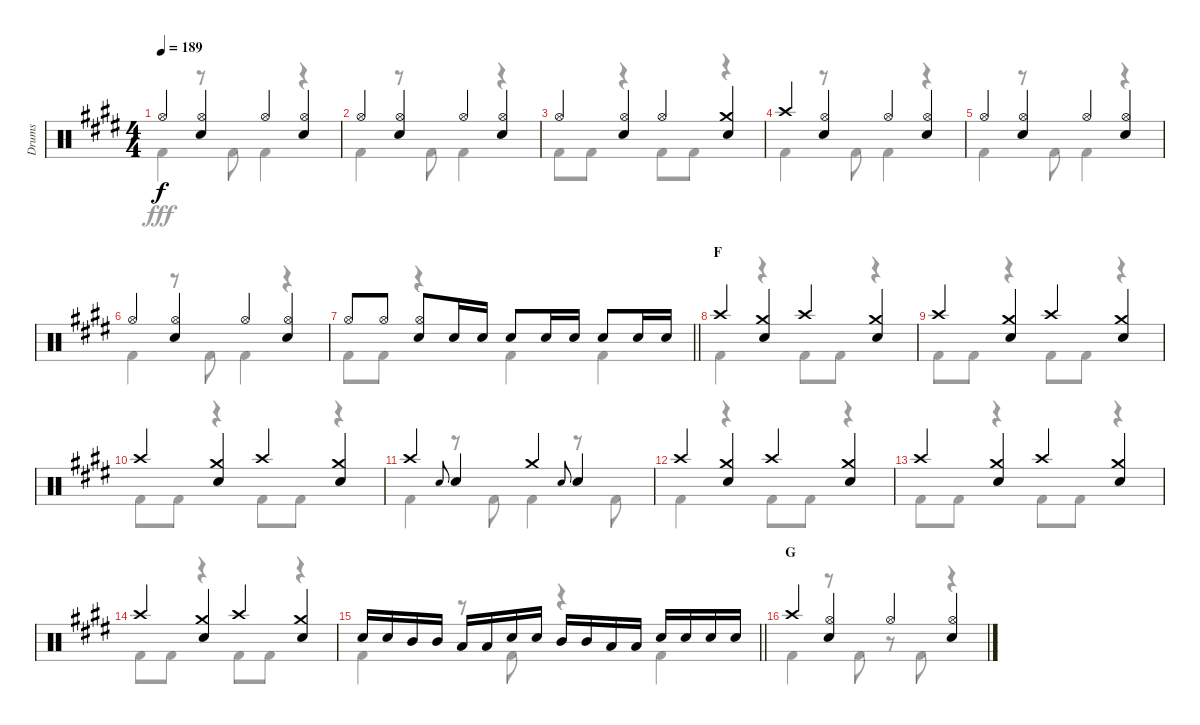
\track ("Drums" "Drums") {instrument percussion}
\staff {score}
\articulation defaults
\voice
\ts (4 4)
\tempo 189
\clef neutral
\ks e "Hi-Hat (open)".4{dy f}
("Hi-Hat (open)" "Snare (hit) 2").4 "Hi-Hat (open)".4 ("Hi-Hat (open)" "Snare (hit) 2").4 |
"Hi-Hat (open)".4 ("Hi-Hat (open)" "Snare (hit) 2").4 "Hi-Hat (open)".4 ("Hi-Hat (open)" "Snare (hit) 2").4 |
"Hi-Hat (open)".4 ("Hi-Hat (open)" "Snare (hit) 2").4 "Hi-Hat (open)".4 ("Crash medium (hit)" "Snare (hit) 2").4 |
"Crash high (hit)".4 ("Hi-Hat (open)" "Snare (hit) 2").4 "Hi-Hat (open)".4 ("Hi-Hat (open)" "Snare (hit) 2").4 |
"Hi-Hat (open)".4 ("Hi-Hat (open)" "Snare (hit) 2").4 "Hi-Hat (open)".4 ("Hi-Hat (open)" "Snare (hit) 2").4 |
"Hi-Hat (open)".4 ("Hi-Hat (open)" "Snare (hit) 2").4 "Hi-Hat (open)".4 ("Hi-Hat (open)" "Snare (hit) 2").4 |
\barLineRight lightlight "Hi-Hat (open)".8 "Hi-Hat (open)".8
("Hi-Hat (open)" "Snare (hit) 2").8 "Snare (hit) 2".16 "Snare (hit) 2".16 "Snare (hit) 2".8 "Snare (hit) 2".16 "Snare (hit) 2".16 "Snare (hit) 2".8 "Snare (hit) 2".16 "Snare (hit) 2".16 |
\section ("" "F")
"Crash high (hit)".4 ("Crash medium (hit)" "Snare (hit) 2").4 "Crash high (hit)".4 ("Crash medium (hit)" "Snare (hit) 2").4 |
"Crash high (hit)".4 ("Crash medium (hit)" "Snare (hit) 2").4 "Crash high (hit)".4 ("Crash medium (hit)" "Snare (hit) 2").4 |
"Crash high (hit)".4 ("Crash medium (hit)" "Snare (hit) 2").4 "Crash high (hit)".4 ("Crash medium (hit)" "Snare (hit) 2").4 |
"Crash high (hit)".4 "Snare (hit) 2".8{gr onbeat} "Snare (hit) 2".4 "Crash medium (hit)".4 "Snare (hit) 2".8{gr onbeat} "Snare (hit) 2".4 |
"Crash high (hit)".4 ("Crash medium (hit)" "Snare (hit) 2").4 "Crash high (hit)".4 ("Crash medium (hit)" "Snare (hit) 2").4 |
"Crash high (hit)".4 ("Crash medium (hit)" "Snare (hit) 2").4 "Crash high (hit)".4 ("Crash medium (hit)" "Snare (hit) 2").4 |
"Crash high (hit)".4 ("Crash medium (hit)" "Snare (hit) 2").4 "Crash high (hit)".4 ("Crash medium (hit)" "Snare (hit) 2").4 |
\barLineRight lightlight "Snare (hit) 2".16 "Snare (hit) 2".16 "Mid Tom (hit)".16 "Mid Tom (hit)".16 "Low Tom (hit)".16 "Low Tom (hit)".16 "Snare (hit) 2".16 "Snare (hit) 2".16 "Mid Tom (hit)".16 "Mid Tom (hit)".16 "Low Tom (hit)".16 "Low Tom (hit)".16 "Snare (hit) 2".16 "Snare (hit) 2".16 "Snare (hit) 2".16 "Snare (hit) 2".16
|
\section ("" "G")
"Crash high (hit)".4 ("Hi-Hat (open)" "Snare (hit) 2").4 "Hi-Hat (open)".4 ("Hi-Hat (open)" "Snare (hit) 2").4
\voice
\clef neutral
\ottava regular
\simile none
\ks e "Kick (hit) 2".4{dy fff}
r.8 "Kick (hit) 2".8 "Kick (hit) 2".4 r.4 |
"Kick (hit) 2".4 r.8 "Kick (hit) 2".8 "Kick (hit) 2".4 r.4 |
"Kick (hit) 2".8 "Kick (hit) 2".8 r.4 "Kick (hit) 2".8 "Kick (hit) 2".8 r.4 |
"Kick (hit) 2".4 r.8 "Kick (hit) 2".8 "Kick (hit) 2".4 r.4 |
"Kick (hit) 2".4 r.8 "Kick (hit) 2".8 "Kick (hit) 2".4 r.4 |
"Kick (hit) 2".4 r.8 "Kick (hit) 2".8 "Kick (hit) 2".4 r.4 |
\barLineRight lightlight "Kick (hit) 2".8 "Kick (hit) 2".8
r.4 "Kick (hit) 2".4 "Kick (hit) 2".4 |
"Kick (hit) 2".4 r.4 "Kick (hit) 2".8 "Kick (hit) 2".8 r.4 |
"Kick (hit) 2".8 "Kick (hit) 2".8 r.4 "Kick (hit) 2".8 "Kick (hit) 2".8 r.4 |
"Kick (hit) 2".8 "Kick (hit) 2".8 r.4 "Kick (hit) 2".8 "Kick (hit) 2".8 r.4 |
"Kick (hit) 2".4 r.8 "Kick (hit) 2".8 "Kick (hit) 2".4 r.8 "Kick (hit) 2".8 |
"Kick (hit) 2".4 r.4 "Kick (hit) 2".8 "Kick (hit) 2".8 r.4 |
"Kick (hit) 2".8 "Kick (hit) 2".8 r.4 "Kick (hit) 2".8 "Kick (hit) 2".8 r.4 |
"Kick (hit) 2".8 "Kick (hit) 2".8 r.4 "Kick (hit) 2".8 "Kick (hit) 2".8 r.4 |
\barLineRight lightlight "Kick (hit) 2".4
r.8 "Kick (hit) 2".8 r.4 "Kick (hit) 2".4 |
"Kick (hit) 2".4 r.8 "Kick (hit) 2".8 r.8 "Kick (hit) 2".8 r.4
